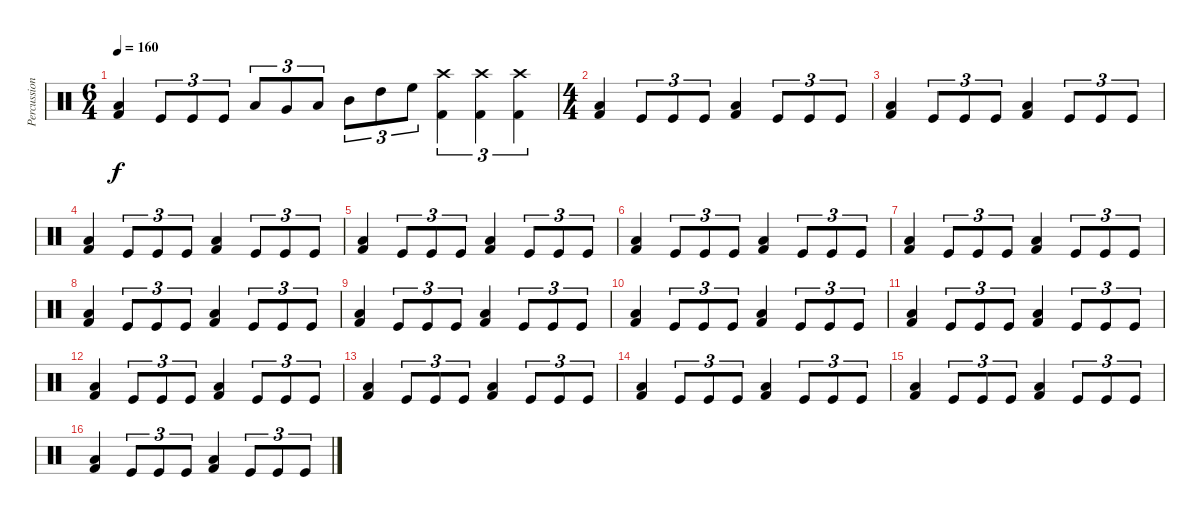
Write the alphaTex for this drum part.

\track ("Percussions" "Percussion") {instrument percussion}
\staff {score}
\articulation defaults
\ts (6 4)
\tempo 160
\clef neutral
\ks c
("Kick (hit) 2" "Low Floor Tom (hit)").4{dy f} "Kick (hit)".8{tu (3 2)} "Kick (hit)".8{tu (3 2)} "Kick (hit)".8{tu (3 2)} "Low Floor Tom (hit)".8{tu (3 2)} "Very Low Tom (hit)".8{tu (3 2)} "Low Tom (hit)".8{tu (3 2)} "Mid Tom (hit)".8{tu (3 2)} "High Tom (hit)".8{tu (3 2)} "High Floor Tom (hit)".8{tu (3 2)} ("Crash high (hit)" "Kick (hit) 2").4{tu (3 2)} ("Crash high (hit)" "Kick (hit) 2").4{tu (3 2)} ("Crash high (hit)" "Kick (hit) 2").4{tu (3 2)} |
\ts (4 4)
("Kick (hit) 2" "Low Floor Tom (hit)").4 "Kick (hit)".8{tu (3 2)} "Kick (hit)".8{tu (3 2)} "Kick (hit)".8{tu (3 2)} ("Kick (hit) 2" "Low Floor Tom (hit)").4 "Kick (hit)".8{tu (3 2)} "Kick (hit)".8{tu (3 2)} "Kick (hit)".8{tu (3 2)} |
("Kick (hit) 2" "Low Floor Tom (hit)").4 "Kick (hit)".8{tu (3 2)} "Kick (hit)".8{tu (3 2)} "Kick (hit)".8{tu (3 2)} ("Kick (hit) 2" "Low Floor Tom (hit)").4 "Kick (hit)".8{tu (3 2)} "Kick (hit)".8{tu (3 2)} "Kick (hit)".8{tu (3 2)} |
("Kick (hit) 2" "Low Floor Tom (hit)").4 "Kick (hit)".8{tu (3 2)} "Kick (hit)".8{tu (3 2)} "Kick (hit)".8{tu (3 2)} ("Kick (hit) 2" "Low Floor Tom (hit)").4 "Kick (hit)".8{tu (3 2)} "Kick (hit)".8{tu (3 2)} "Kick (hit)".8{tu (3 2)} |
("Kick (hit) 2" "Low Floor Tom (hit)").4 "Kick (hit)".8{tu (3 2)} "Kick (hit)".8{tu (3 2)} "Kick (hit)".8{tu (3 2)} ("Kick (hit) 2" "Low Floor Tom (hit)").4 "Kick (hit)".8{tu (3 2)} "Kick (hit)".8{tu (3 2)} "Kick (hit)".8{tu (3 2)} |
("Kick (hit) 2" "Low Floor Tom (hit)").4 "Kick (hit)".8{tu (3 2)} "Kick (hit)".8{tu (3 2)} "Kick (hit)".8{tu (3 2)} ("Kick (hit) 2" "Low Floor Tom (hit)").4 "Kick (hit)".8{tu (3 2)} "Kick (hit)".8{tu (3 2)} "Kick (hit)".8{tu (3 2)} |
("Kick (hit) 2" "Low Floor Tom (hit)").4 "Kick (hit)".8{tu (3 2)} "Kick (hit)".8{tu (3 2)} "Kick (hit)".8{tu (3 2)} ("Kick (hit) 2" "Low Floor Tom (hit)").4 "Kick (hit)".8{tu (3 2)} "Kick (hit)".8{tu (3 2)} "Kick (hit)".8{tu (3 2)} |
("Kick (hit) 2" "Low Floor Tom (hit)").4 "Kick (hit)".8{tu (3 2)} "Kick (hit)".8{tu (3 2)} "Kick (hit)".8{tu (3 2)} ("Kick (hit) 2" "Low Floor Tom (hit)").4 "Kick (hit)".8{tu (3 2)} "Kick (hit)".8{tu (3 2)} "Kick (hit)".8{tu (3 2)} |
("Kick (hit) 2" "Low Floor Tom (hit)").4 "Kick (hit)".8{tu (3 2)} "Kick (hit)".8{tu (3 2)} "Kick (hit)".8{tu (3 2)} ("Kick (hit) 2" "Low Floor Tom (hit)").4 "Kick (hit)".8{tu (3 2)} "Kick (hit)".8{tu (3 2)} "Kick (hit)".8{tu (3 2)} |
("Kick (hit) 2" "Low Floor Tom (hit)").4 "Kick (hit)".8{tu (3 2)} "Kick (hit)".8{tu (3 2)} "Kick (hit)".8{tu (3 2)} ("Kick (hit) 2" "Low Floor Tom (hit)").4 "Kick (hit)".8{tu (3 2)} "Kick (hit)".8{tu (3 2)} "Kick (hit)".8{tu (3 2)} |
("Kick (hit) 2" "Low Floor Tom (hit)").4 "Kick (hit)".8{tu (3 2)} "Kick (hit)".8{tu (3 2)} "Kick (hit)".8{tu (3 2)} ("Kick (hit) 2" "Low Floor Tom (hit)").4 "Kick (hit)".8{tu (3 2)} "Kick (hit)".8{tu (3 2)} "Kick (hit)".8{tu (3 2)} |
("Kick (hit) 2" "Low Floor Tom (hit)").4 "Kick (hit)".8{tu (3 2)} "Kick (hit)".8{tu (3 2)} "Kick (hit)".8{tu (3 2)} ("Kick (hit) 2" "Low Floor Tom (hit)").4 "Kick (hit)".8{tu (3 2)} "Kick (hit)".8{tu (3 2)} "Kick (hit)".8{tu (3 2)} |
("Kick (hit) 2" "Low Floor Tom (hit)").4 "Kick (hit)".8{tu (3 2)} "Kick (hit)".8{tu (3 2)} "Kick (hit)".8{tu (3 2)} ("Kick (hit) 2" "Low Floor Tom (hit)").4 "Kick (hit)".8{tu (3 2)} "Kick (hit)".8{tu (3 2)} "Kick (hit)".8{tu (3 2)} |
("Kick (hit) 2" "Low Floor Tom (hit)").4 "Kick (hit)".8{tu (3 2)} "Kick (hit)".8{tu (3 2)} "Kick (hit)".8{tu (3 2)} ("Kick (hit) 2" "Low Floor Tom (hit)").4 "Kick (hit)".8{tu (3 2)} "Kick (hit)".8{tu (3 2)} "Kick (hit)".8{tu (3 2)} |
("Kick (hit) 2" "Low Floor Tom (hit)").4 "Kick (hit)".8{tu (3 2)} "Kick (hit)".8{tu (3 2)} "Kick (hit)".8{tu (3 2)} ("Kick (hit) 2" "Low Floor Tom (hit)").4 "Kick (hit)".8{tu (3 2)} "Kick (hit)".8{tu (3 2)} "Kick (hit)".8{tu (3 2)} |
("Kick (hit) 2" "Low Floor Tom (hit)").4 "Kick (hit)".8{tu (3 2)} "Kick (hit)".8{tu (3 2)} "Kick (hit)".8{tu (3 2)} ("Kick (hit) 2" "Low Floor Tom (hit)").4 "Kick (hit)".8{tu (3 2)} "Kick (hit)".8{tu (3 2)} "Kick (hit)".8{tu (3 2)}
